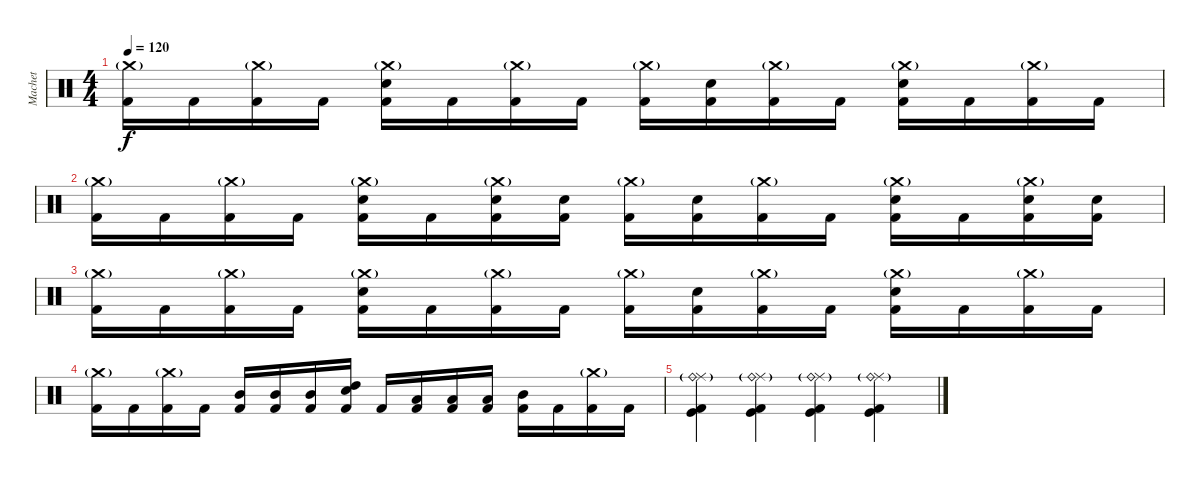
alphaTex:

\track ("Machet" "Machet") {instrument percussion}
\staff {score}
\articulation defaults
\ts (4 4)
\tempo 120
\clef neutral
\ks c
("Crash medium (hit)"{g} "Kick (hit) 2").16{dy f} "Kick (hit) 2".16 ("Crash medium (hit)"{g} "Kick (hit) 2").16 "Kick (hit) 2".16 ("Crash medium (hit)"{g} "Snare (hit) 2" "Kick (hit) 2").16 "Kick (hit) 2".16 ("Crash medium (hit)"{g} "Kick (hit) 2").16 "Kick (hit) 2".16 ("Crash medium (hit)"{g} "Kick (hit) 2").16 ("Snare (hit) 2" "Kick (hit) 2").16 ("Crash medium (hit)"{g} "Kick (hit) 2").16 "Kick (hit) 2".16 ("Crash medium (hit)"{g} "Snare (hit) 2" "Kick (hit) 2").16 "Kick (hit) 2".16 ("Crash medium (hit)"{g} "Kick (hit) 2").16 "Kick (hit) 2".16 |
("Crash medium (hit)"{g} "Kick (hit) 2").16 "Kick (hit) 2".16 ("Crash medium (hit)"{g} "Kick (hit) 2").16 "Kick (hit) 2".16 ("Crash medium (hit)"{g} "Snare (hit) 2" "Kick (hit) 2").16 "Kick (hit) 2".16 ("Crash medium (hit)"{g} "Snare (hit) 2" "Kick (hit) 2").16 ("Snare (hit) 2" "Kick (hit) 2").16 ("Crash medium (hit)"{g} "Kick (hit) 2").16 ("Snare (hit) 2" "Kick (hit) 2").16 ("Crash medium (hit)"{g} "Kick (hit) 2").16 "Kick (hit) 2".16 ("Crash medium (hit)"{g} "Snare (hit) 2" "Kick (hit) 2").16 "Kick (hit) 2".16 ("Crash medium (hit)"{g} "Snare (hit) 2" "Kick (hit) 2").16 ("Snare (hit) 2" "Kick (hit) 2").16 |
("Crash medium (hit)"{g} "Kick (hit) 2").16 "Kick (hit) 2".16 ("Crash medium (hit)"{g} "Kick (hit) 2").16 "Kick (hit) 2".16 ("Crash medium (hit)"{g} "Snare (hit) 2" "Kick (hit) 2").16 "Kick (hit) 2".16 ("Crash medium (hit)"{g} "Kick (hit) 2").16 "Kick (hit) 2".16 ("Crash medium (hit)"{g} "Kick (hit) 2").16 ("Snare (hit) 2" "Kick (hit) 2").16 ("Crash medium (hit)"{g} "Kick (hit) 2").16 "Kick (hit) 2".16 ("Crash medium (hit)"{g} "Snare (hit) 2" "Kick (hit) 2").16 "Kick (hit) 2".16 ("Crash medium (hit)"{g} "Kick (hit) 2").16 "Kick (hit) 2".16 |
("Crash medium (hit)"{g} "Kick (hit) 2").16 "Kick (hit) 2".16 ("Crash medium (hit)"{g} "Kick (hit) 2").16 "Kick (hit) 2".16 ("Mid Tom (hit)" "Kick (hit) 2").16 ("Mid Tom (hit)" "Kick (hit) 2").16 ("Mid Tom (hit)" "Kick (hit) 2").16 ("High Tom (hit)" "Snare (hit) 2" "Kick (hit) 2").16 "Kick (hit) 2".16 ("Low Tom (hit)" "Kick (hit) 2").16 ("Low Tom (hit)" "Kick (hit) 2").16 ("Low Tom (hit)" "Kick (hit) 2").16 ("Mid Tom (hit)" "Kick (hit) 2").16 "Kick (hit) 2".16 ("Crash medium (hit)"{g} "Kick (hit) 2").16 "Kick (hit) 2".16 |
("Ride (middle)" "Kick (hit) 2" "Kick (hit)" "Ride (bell)"{g}).4 ("Ride (middle)" "Kick (hit) 2" "Kick (hit)" "Ride (bell)"{g}).4 ("Ride (middle)" "Kick (hit) 2" "Kick (hit)" "Ride (bell)"{g}).4 ("Ride (middle)" "Kick (hit) 2" "Kick (hit)" "Ride (bell)"{g}).4
